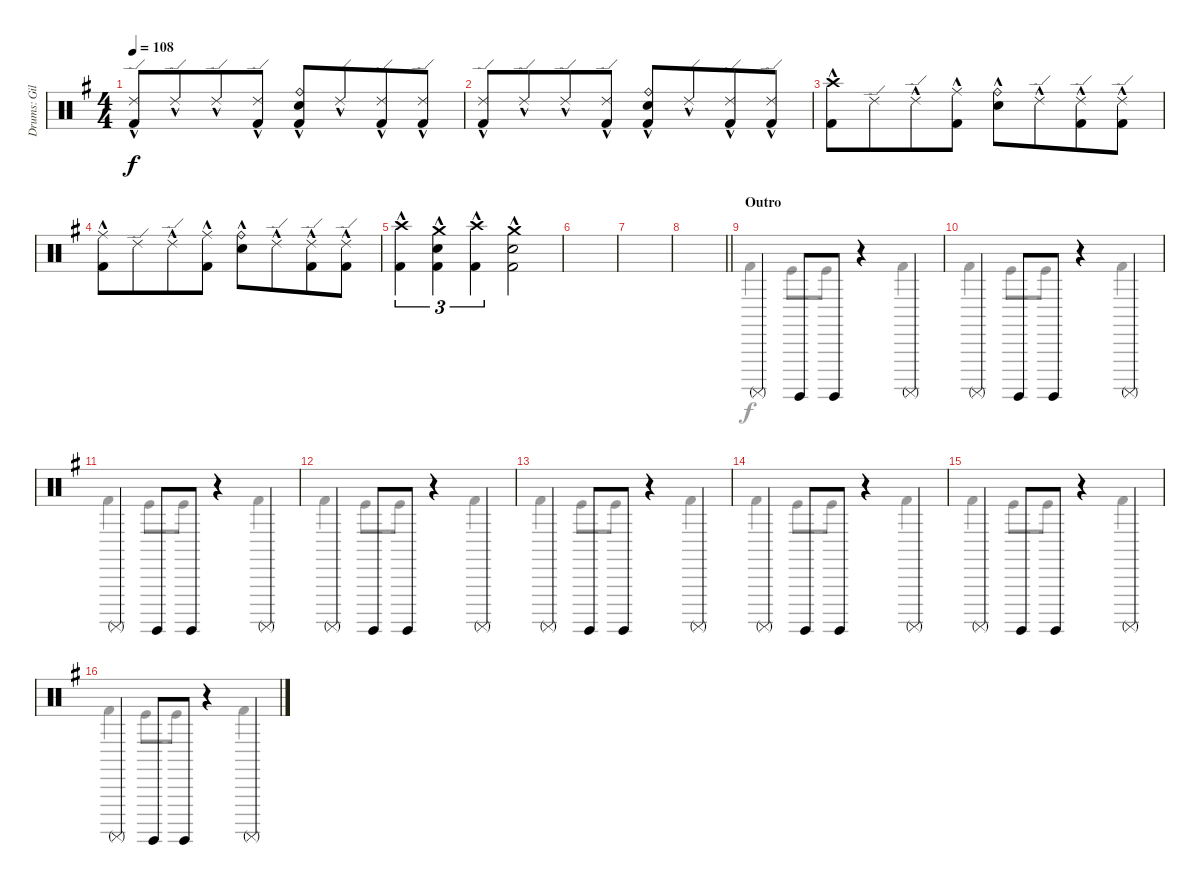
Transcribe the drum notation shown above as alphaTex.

\track ("Drums: Gil" "Drums: Gil") {instrument percussion}
\staff {score}
\articulation defaults
\voice
\ts (4 4)
\tempo 108
\clef neutral
\ks g
("Ride (edge) 2"{hac} "Kick (hit) 2"{hac}).8{dy f} "Ride (edge) 2"{hac}.8{beam merge} "Ride (edge) 2"{hac}.8{beam merge} ("Ride (edge) 2"{hac} "Kick (hit) 2").8{beam split} ("Ride (bell)"{hac} "Snare (hit) 2"{hac} "Kick (hit) 2"{hac}).8 "Ride (edge) 2"{hac}.8{beam merge} ("Ride (edge) 2"{hac} "Kick (hit) 2"{hac}).8{beam merge} ("Ride (edge) 2"{hac} "Kick (hit) 2"{hac}).8 |
("Ride (edge) 2"{hac} "Kick (hit) 2"{hac}).8 "Ride (edge) 2"{hac}.8{beam merge} "Ride (edge) 2"{hac}.8{beam merge} ("Ride (edge) 2"{hac} "Kick (hit) 2").8{beam split} ("Ride (bell)"{hac} "Snare (hit) 2"{hac} "Kick (hit) 2"{hac}).8 "Ride (edge) 2"{hac}.8{beam merge} ("Ride (edge) 2"{hac} "Kick (hit) 2"{hac}).8{beam merge} ("Ride (edge) 2"{hac} "Kick (hit) 2"{hac}).8 |
("Crash high (hit)"{hac} "Kick (hit) 2"{hac}).8 "Ride (edge) 2".8{beam merge} "Ride (edge) 2"{hac}.8{beam merge} ("Ride (middle)"{hac} "Kick (hit) 2").8{beam split} ("Ride (bell)"{hac} "Snare (hit) 2"{hac}).8 "Ride (edge) 2"{hac}.8{beam merge} ("Ride (edge) 2"{hac} "Kick (hit) 2"{hac}).8{beam merge} ("Ride (edge) 2"{hac} "Kick (hit) 2"{hac}).8 |
("Ride (middle)"{hac} "Kick (hit) 2"{hac}).8 "Ride (edge) 2".8{beam merge} "Ride (edge) 2"{hac}.8{beam merge} ("Ride (middle)"{hac} "Kick (hit) 2").8{beam split} ("Ride (bell)"{hac} "Snare (hit) 2"{hac}).8 "Ride (edge) 2"{hac}.8{beam merge} ("Ride (edge) 2"{hac} "Kick (hit) 2"{hac}).8{beam merge} ("Ride (edge) 2"{hac} "Kick (hit) 2"{hac}).8 |
("Crash high (hit)"{hac} "Kick (hit) 2"{hac}).4{tu (3 2)} ("Crash medium (hit)"{hac} "Snare (hit) 2"{hac} "Kick (hit) 2"{hac}).4{tu (3 2)} ("Crash high (hit)"{hac} "Kick (hit) 2"{hac}).4{tu (3 2)} ("Crash medium (hit)"{hac} "Snare (hit) 2"{hac} "Kick (hit) 2"{hac}).2 |
|
|
\barLineRight lightlight
|
\section ("" "Outro")
"Surdo (mute)".4 "Surdo (hit)".8 "Surdo (hit)".8 r.4 "Surdo (mute)".4 |
"Surdo (mute)".4 "Surdo (hit)".8 "Surdo (hit)".8 r.4 "Surdo (mute)".4 |
"Surdo (mute)".4 "Surdo (hit)".8 "Surdo (hit)".8 r.4 "Surdo (mute)".4 |
"Surdo (mute)".4 "Surdo (hit)".8 "Surdo (hit)".8 r.4 "Surdo (mute)".4 |
"Surdo (mute)".4 "Surdo (hit)".8 "Surdo (hit)".8 r.4 "Surdo (mute)".4 |
"Surdo (mute)".4 "Surdo (hit)".8 "Surdo (hit)".8 r.4 "Surdo (mute)".4 |
"Surdo (mute)".4 "Surdo (hit)".8 "Surdo (hit)".8 r.4 "Surdo (mute)".4 |
"Surdo (mute)".4 "Surdo (hit)".8 "Surdo (hit)".8 r.4 "Surdo (mute)".4
\voice
\clef neutral
\ottava regular
\simile none
\ks g
|
|
|
|
|
|
|
\barLineRight lightlight
|
"Kick (hit) 2".4 "Kick (hit)".8 "Kick (hit)".8 r.4 "Kick (hit) 2".4 |
"Kick (hit) 2".4 "Kick (hit)".8 "Kick (hit)".8 r.4 "Kick (hit) 2".4 |
"Kick (hit) 2".4 "Kick (hit)".8 "Kick (hit)".8 r.4 "Kick (hit) 2".4 |
"Kick (hit) 2".4 "Kick (hit)".8 "Kick (hit)".8 r.4 "Kick (hit) 2".4 |
"Kick (hit) 2".4 "Kick (hit)".8 "Kick (hit)".8 r.4 "Kick (hit) 2".4 |
"Kick (hit) 2".4 "Kick (hit)".8 "Kick (hit)".8 r.4 "Kick (hit) 2".4 |
"Kick (hit) 2".4 "Kick (hit)".8 "Kick (hit)".8 r.4 "Kick (hit) 2".4 |
"Kick (hit) 2".4 "Kick (hit)".8 "Kick (hit)".8 r.4 "Kick (hit) 2".4
